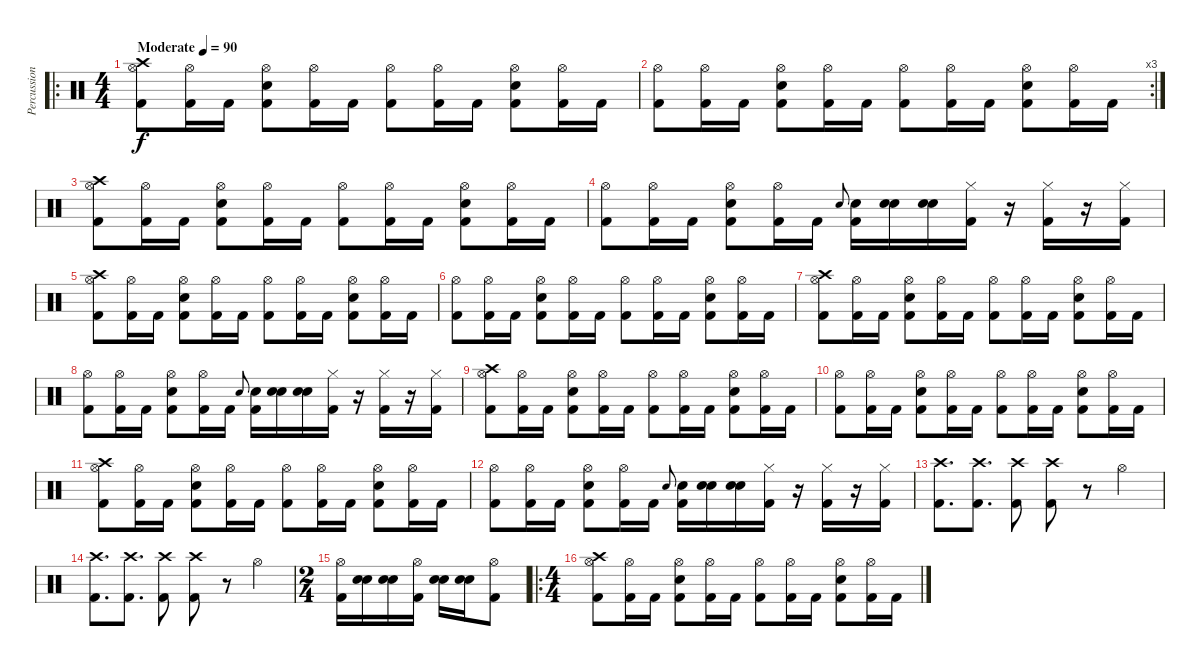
\track ("Percussion " "Percussion") {instrument percussion}
\staff {score}
\articulation defaults
\ro
\ts (4 4)
\tempo (90 "Moderate")
\clef neutral
\ks c
("Crash high (hit)" "Hi-Hat (open)" "Kick (hit) 2").8{dy f} ("Hi-Hat (open)" "Kick (hit) 2").16 "Kick (hit) 2".16 ("Hi-Hat (open)" "Snare (hit) 2" "Kick (hit) 2").8 ("Hi-Hat (open)" "Kick (hit) 2").16 "Kick (hit) 2".16 ("Hi-Hat (open)" "Kick (hit) 2").8 ("Hi-Hat (open)" "Kick (hit) 2").16 "Kick (hit) 2".16 ("Hi-Hat (open)" "Snare (hit) 2" "Kick (hit) 2").8 ("Hi-Hat (open)" "Kick (hit) 2").16 "Kick (hit) 2".16 |
\rc 3
("Hi-Hat (open)" "Kick (hit) 2").8 ("Hi-Hat (open)" "Kick (hit) 2").16 "Kick (hit) 2".16 ("Hi-Hat (open)" "Snare (hit) 2" "Kick (hit) 2").8 ("Hi-Hat (open)" "Kick (hit) 2").16 "Kick (hit) 2".16 ("Hi-Hat (open)" "Kick (hit) 2").8 ("Hi-Hat (open)" "Kick (hit) 2").16 "Kick (hit) 2".16 ("Hi-Hat (open)" "Snare (hit) 2" "Kick (hit) 2").8 ("Hi-Hat (open)" "Kick (hit) 2").16 "Kick (hit) 2".16 |
("Crash high (hit)" "Hi-Hat (open)" "Kick (hit) 2").8 ("Hi-Hat (open)" "Kick (hit) 2").16 "Kick (hit) 2".16 ("Hi-Hat (open)" "Snare (hit) 2" "Kick (hit) 2").8 ("Hi-Hat (open)" "Kick (hit) 2").16 "Kick (hit) 2".16 ("Hi-Hat (open)" "Kick (hit) 2").8 ("Hi-Hat (open)" "Kick (hit) 2").16 "Kick (hit) 2".16 ("Hi-Hat (open)" "Snare (hit) 2" "Kick (hit) 2").8 ("Hi-Hat (open)" "Kick (hit) 2").16 "Kick (hit) 2".16 |
("Hi-Hat (open)" "Kick (hit) 2").8 ("Hi-Hat (open)" "Kick (hit) 2").16 "Kick (hit) 2".16 ("Hi-Hat (open)" "Snare (hit) 2" "Kick (hit) 2").8 ("Hi-Hat (open)" "Kick (hit) 2").16 "Kick (hit) 2".16 "Snare (hit) 2".8{gr onbeat} ("Snare (hit) 2" "Kick (hit) 2").16 ("Snare (hit) 2" "Snare (hit) 2").16 ("Snare (hit) 2" "Snare (hit) 2").16 ("Hi-Hat (closed)" "Kick (hit) 2").16 r.16 ("Hi-Hat (closed)" "Kick (hit) 2").16 r.16 ("Hi-Hat (closed)" "Kick (hit) 2").16 |
("Crash high (hit)" "Hi-Hat (open)" "Kick (hit) 2").8 ("Hi-Hat (open)" "Kick (hit) 2").16 "Kick (hit) 2".16 ("Hi-Hat (open)" "Snare (hit) 2" "Kick (hit) 2").8 ("Hi-Hat (open)" "Kick (hit) 2").16 "Kick (hit) 2".16 ("Hi-Hat (open)" "Kick (hit) 2").8 ("Hi-Hat (open)" "Kick (hit) 2").16 "Kick (hit) 2".16 ("Hi-Hat (open)" "Snare (hit) 2" "Kick (hit) 2").8 ("Hi-Hat (open)" "Kick (hit) 2").16 "Kick (hit) 2".16 |
("Hi-Hat (open)" "Kick (hit) 2").8 ("Hi-Hat (open)" "Kick (hit) 2").16 "Kick (hit) 2".16 ("Hi-Hat (open)" "Snare (hit) 2" "Kick (hit) 2").8 ("Hi-Hat (open)" "Kick (hit) 2").16 "Kick (hit) 2".16 ("Hi-Hat (open)" "Kick (hit) 2").8 ("Hi-Hat (open)" "Kick (hit) 2").16 "Kick (hit) 2".16 ("Hi-Hat (open)" "Snare (hit) 2" "Kick (hit) 2").8 ("Hi-Hat (open)" "Kick (hit) 2").16 "Kick (hit) 2".16 |
("Crash high (hit)" "Hi-Hat (open)" "Kick (hit) 2").8 ("Hi-Hat (open)" "Kick (hit) 2").16 "Kick (hit) 2".16 ("Hi-Hat (open)" "Snare (hit) 2" "Kick (hit) 2").8 ("Hi-Hat (open)" "Kick (hit) 2").16 "Kick (hit) 2".16 ("Hi-Hat (open)" "Kick (hit) 2").8 ("Hi-Hat (open)" "Kick (hit) 2").16 "Kick (hit) 2".16 ("Hi-Hat (open)" "Snare (hit) 2" "Kick (hit) 2").8 ("Hi-Hat (open)" "Kick (hit) 2").16 "Kick (hit) 2".16 |
("Hi-Hat (open)" "Kick (hit) 2").8 ("Hi-Hat (open)" "Kick (hit) 2").16 "Kick (hit) 2".16 ("Hi-Hat (open)" "Snare (hit) 2" "Kick (hit) 2").8 ("Hi-Hat (open)" "Kick (hit) 2").16 "Kick (hit) 2".16 "Snare (hit) 2".8{gr onbeat} ("Snare (hit) 2" "Kick (hit) 2").16 ("Snare (hit) 2" "Snare (hit) 2").16 ("Snare (hit) 2" "Snare (hit) 2").16 ("Hi-Hat (closed)" "Kick (hit) 2").16 r.16 ("Hi-Hat (closed)" "Kick (hit) 2").16 r.16 ("Hi-Hat (closed)" "Kick (hit) 2").16 |
("Crash high (hit)" "Hi-Hat (open)" "Kick (hit) 2").8 ("Hi-Hat (open)" "Kick (hit) 2").16 "Kick (hit) 2".16 ("Hi-Hat (open)" "Snare (hit) 2" "Kick (hit) 2").8 ("Hi-Hat (open)" "Kick (hit) 2").16 "Kick (hit) 2".16 ("Hi-Hat (open)" "Kick (hit) 2").8 ("Hi-Hat (open)" "Kick (hit) 2").16 "Kick (hit) 2".16 ("Hi-Hat (open)" "Snare (hit) 2" "Kick (hit) 2").8 ("Hi-Hat (open)" "Kick (hit) 2").16 "Kick (hit) 2".16 |
("Hi-Hat (open)" "Kick (hit) 2").8 ("Hi-Hat (open)" "Kick (hit) 2").16 "Kick (hit) 2".16 ("Hi-Hat (open)" "Snare (hit) 2" "Kick (hit) 2").8 ("Hi-Hat (open)" "Kick (hit) 2").16 "Kick (hit) 2".16 ("Hi-Hat (open)" "Kick (hit) 2").8 ("Hi-Hat (open)" "Kick (hit) 2").16 "Kick (hit) 2".16 ("Hi-Hat (open)" "Snare (hit) 2" "Kick (hit) 2").8 ("Hi-Hat (open)" "Kick (hit) 2").16 "Kick (hit) 2".16 |
("Crash high (hit)" "Hi-Hat (open)" "Kick (hit) 2").8 ("Hi-Hat (open)" "Kick (hit) 2").16 "Kick (hit) 2".16 ("Hi-Hat (open)" "Snare (hit) 2" "Kick (hit) 2").8 ("Hi-Hat (open)" "Kick (hit) 2").16 "Kick (hit) 2".16 ("Hi-Hat (open)" "Kick (hit) 2").8 ("Hi-Hat (open)" "Kick (hit) 2").16 "Kick (hit) 2".16 ("Hi-Hat (open)" "Snare (hit) 2" "Kick (hit) 2").8 ("Hi-Hat (open)" "Kick (hit) 2").16 "Kick (hit) 2".16 |
("Hi-Hat (open)" "Kick (hit) 2").8 ("Hi-Hat (open)" "Kick (hit) 2").16 "Kick (hit) 2".16 ("Hi-Hat (open)" "Snare (hit) 2" "Kick (hit) 2").8 ("Hi-Hat (open)" "Kick (hit) 2").16 "Kick (hit) 2".16 "Snare (hit) 2".8{gr onbeat} ("Snare (hit) 2" "Kick (hit) 2").16 ("Snare (hit) 2" "Snare (hit) 2").16 ("Snare (hit) 2" "Snare (hit) 2").16 ("Hi-Hat (closed)" "Kick (hit) 2").16 r.16 ("Hi-Hat (closed)" "Kick (hit) 2").16 r.16 ("Hi-Hat (closed)" "Kick (hit) 2").16 |
("Crash high (hit)" "Kick (hit) 2").8{d} ("Crash high (hit)" "Kick (hit) 2").8{d} ("Crash high (hit)" "Kick (hit) 2").8 ("Crash high (hit)" "Kick (hit) 2").8 r.8 "Hi-Hat (open)".4 |
("Crash high (hit)" "Kick (hit) 2").8{d} ("Crash high (hit)" "Kick (hit) 2").8{d} ("Crash high (hit)" "Kick (hit) 2").8 ("Crash high (hit)" "Kick (hit) 2").8 r.8 "Hi-Hat (open)".4 |
\ts (2 4)
("Hi-Hat (open)" "Kick (hit) 2").16 ("Snare (hit) 2" "Snare (hit) 2").16 ("Snare (hit) 2" "Snare (hit) 2").16 ("Hi-Hat (open)" "Kick (hit) 2").16 ("Snare (hit) 2" "Snare (hit) 2").16 ("Snare (hit) 2" "Snare (hit) 2").16 ("Hi-Hat (open)" "Kick (hit) 2").8 |
\ro
\ts (4 4)
("Crash high (hit)" "Hi-Hat (open)" "Kick (hit) 2").8 ("Hi-Hat (open)" "Kick (hit) 2").16 "Kick (hit) 2".16 ("Hi-Hat (open)" "Snare (hit) 2" "Kick (hit) 2").8 ("Hi-Hat (open)" "Kick (hit) 2").16 "Kick (hit) 2".16 ("Hi-Hat (open)" "Kick (hit) 2").8 ("Hi-Hat (open)" "Kick (hit) 2").16 "Kick (hit) 2".16 ("Hi-Hat (open)" "Snare (hit) 2" "Kick (hit) 2").8 ("Hi-Hat (open)" "Kick (hit) 2").16 "Kick (hit) 2".16
